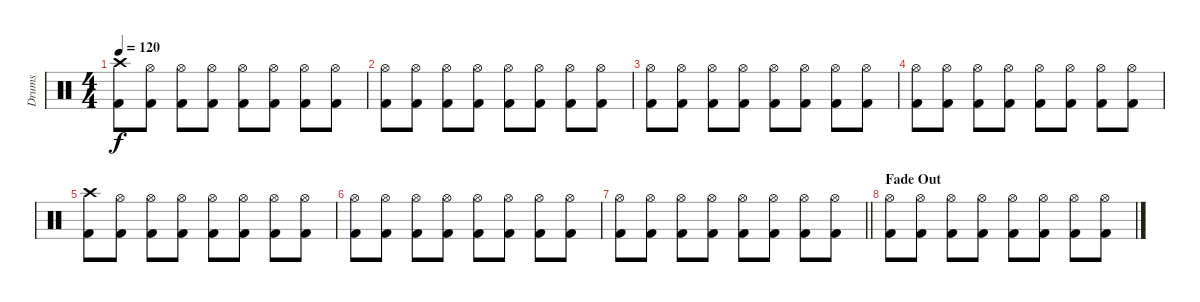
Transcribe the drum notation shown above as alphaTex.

\track ("Drums" "Drums") {instrument percussion}
\staff {score}
\articulation defaults
\ts (4 4)
\tempo 120
\clef neutral
\ks c
("Crash high (hit)" "Kick (hit) 2").8{dy f} ("Hi-Hat (open)" "Kick (hit) 2").8 ("Hi-Hat (open)" "Kick (hit) 2").8 ("Hi-Hat (open)" "Kick (hit) 2").8 ("Hi-Hat (open)" "Kick (hit) 2").8 ("Hi-Hat (open)" "Kick (hit) 2").8 ("Hi-Hat (open)" "Kick (hit) 2").8 ("Hi-Hat (open)" "Kick (hit) 2").8 |
("Hi-Hat (open)" "Kick (hit) 2").8 ("Hi-Hat (open)" "Kick (hit) 2").8 ("Hi-Hat (open)" "Kick (hit) 2").8 ("Hi-Hat (open)" "Kick (hit) 2").8 ("Hi-Hat (open)" "Kick (hit) 2").8 ("Hi-Hat (open)" "Kick (hit) 2").8 ("Hi-Hat (open)" "Kick (hit) 2").8 ("Hi-Hat (open)" "Kick (hit) 2").8 |
("Hi-Hat (open)" "Kick (hit) 2").8 ("Hi-Hat (open)" "Kick (hit) 2").8 ("Hi-Hat (open)" "Kick (hit) 2").8 ("Hi-Hat (open)" "Kick (hit) 2").8 ("Hi-Hat (open)" "Kick (hit) 2").8 ("Hi-Hat (open)" "Kick (hit) 2").8 ("Hi-Hat (open)" "Kick (hit) 2").8 ("Hi-Hat (open)" "Kick (hit) 2").8 |
("Hi-Hat (open)" "Kick (hit) 2").8 ("Hi-Hat (open)" "Kick (hit) 2").8 ("Hi-Hat (open)" "Kick (hit) 2").8 ("Hi-Hat (open)" "Kick (hit) 2").8 ("Hi-Hat (open)" "Kick (hit) 2").8 ("Hi-Hat (open)" "Kick (hit) 2").8 ("Hi-Hat (open)" "Kick (hit) 2").8 ("Hi-Hat (open)" "Kick (hit) 2").8 |
("Crash high (hit)" "Kick (hit) 2").8 ("Hi-Hat (open)" "Kick (hit) 2").8 ("Hi-Hat (open)" "Kick (hit) 2").8 ("Hi-Hat (open)" "Kick (hit) 2").8 ("Hi-Hat (open)" "Kick (hit) 2").8 ("Hi-Hat (open)" "Kick (hit) 2").8 ("Hi-Hat (open)" "Kick (hit) 2").8 ("Hi-Hat (open)" "Kick (hit) 2").8 |
("Hi-Hat (open)" "Kick (hit) 2").8 ("Hi-Hat (open)" "Kick (hit) 2").8 ("Hi-Hat (open)" "Kick (hit) 2").8 ("Hi-Hat (open)" "Kick (hit) 2").8 ("Hi-Hat (open)" "Kick (hit) 2").8 ("Hi-Hat (open)" "Kick (hit) 2").8 ("Hi-Hat (open)" "Kick (hit) 2").8 ("Hi-Hat (open)" "Kick (hit) 2").8 |
\barLineRight lightlight
("Hi-Hat (open)" "Kick (hit) 2").8 ("Hi-Hat (open)" "Kick (hit) 2").8 ("Hi-Hat (open)" "Kick (hit) 2").8 ("Hi-Hat (open)" "Kick (hit) 2").8 ("Hi-Hat (open)" "Kick (hit) 2").8 ("Hi-Hat (open)" "Kick (hit) 2").8 ("Hi-Hat (open)" "Kick (hit) 2").8 ("Hi-Hat (open)" "Kick (hit) 2").8 |
\section ("" "Fade Out")
("Hi-Hat (open)" "Kick (hit) 2").8 ("Hi-Hat (open)" "Kick (hit) 2").8 ("Hi-Hat (open)" "Kick (hit) 2").8 ("Hi-Hat (open)" "Kick (hit) 2").8 ("Hi-Hat (open)" "Kick (hit) 2").8 ("Hi-Hat (open)" "Kick (hit) 2").8 ("Hi-Hat (open)" "Kick (hit) 2").8 ("Hi-Hat (open)" "Kick (hit) 2").8
